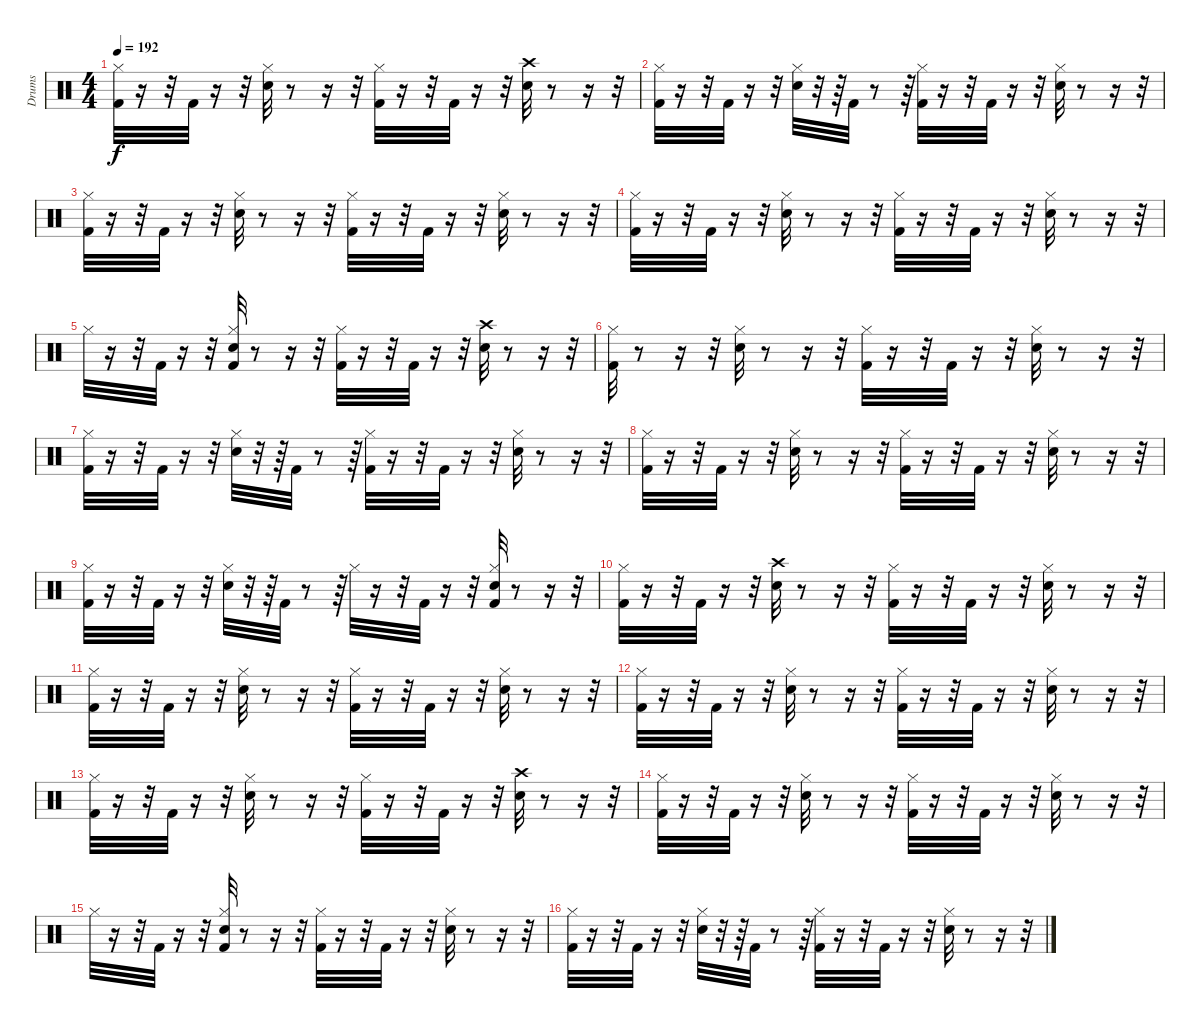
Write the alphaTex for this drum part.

\track ("Drums" "Drums") {instrument percussion}
\staff {score}
\articulation defaults
\ts (4 4)
\tempo 192
\clef neutral
\ks c
("Kick (hit) 2" "Hi-Hat (closed)").32{dy f} r.16 r.32 "Kick (hit) 2".32 r.16 r.32 ("Snare (hit) 2" "Hi-Hat (closed)").32 r.8 r.16 r.32 ("Kick (hit) 2" "Hi-Hat (closed)").32 r.16 r.32 "Kick (hit) 2".32 r.16 r.32 ("Crash high (hit)" "Snare (hit) 2").32 r.8 r.16 r.32 |
("Kick (hit) 2" "Hi-Hat (closed)").32 r.16 r.32 "Kick (hit) 2".32 r.16 r.32 ("Snare (hit) 2" "Hi-Hat (closed)").32 r.32 r.64 "Kick (hit) 2".32 r.8 r.64 ("Kick (hit) 2" "Hi-Hat (closed)").32 r.16 r.32 "Kick (hit) 2".32 r.16 r.32 ("Snare (hit) 2" "Hi-Hat (closed)").32 r.8 r.16 r.32 |
("Kick (hit) 2" "Hi-Hat (closed)").32 r.16 r.32 "Kick (hit) 2".32 r.16 r.32 ("Snare (hit) 2" "Hi-Hat (closed)").32 r.8 r.16 r.32 ("Kick (hit) 2" "Hi-Hat (closed)").32 r.16 r.32 "Kick (hit) 2".32 r.16 r.32 ("Snare (hit) 2" "Hi-Hat (closed)").32 r.8 r.16 r.32 |
("Kick (hit) 2" "Hi-Hat (closed)").32 r.16 r.32 "Kick (hit) 2".32 r.16 r.32 ("Snare (hit) 2" "Hi-Hat (closed)").32 r.8 r.16 r.32 ("Kick (hit) 2" "Hi-Hat (closed)").32 r.16 r.32 "Kick (hit) 2".32 r.16 r.32 ("Snare (hit) 2" "Hi-Hat (closed)").32 r.8 r.16 r.32 |
"Hi-Hat (closed)".32 r.16 r.32 "Kick (hit) 2".32 r.16 r.32 ("Kick (hit) 2" "Snare (hit) 2" "Hi-Hat (closed)").32 r.8 r.16 r.32 ("Kick (hit) 2" "Hi-Hat (closed)").32 r.16 r.32 "Kick (hit) 2".32 r.16 r.32 ("Crash high (hit)" "Snare (hit) 2").32 r.8 r.16 r.32 |
("Kick (hit) 2" "Hi-Hat (closed)").32 r.8 r.16 r.32 ("Snare (hit) 2" "Hi-Hat (closed)").32 r.8 r.16 r.32 ("Kick (hit) 2" "Hi-Hat (closed)").32 r.16 r.32 "Kick (hit) 2".32 r.16 r.32 ("Hi-Hat (closed)" "Snare (hit) 2").32 r.8 r.16 r.32 |
("Kick (hit) 2" "Hi-Hat (closed)").32 r.16 r.32 "Kick (hit) 2".32 r.16 r.32 ("Snare (hit) 2" "Hi-Hat (closed)").32 r.32 r.64 "Kick (hit) 2".32 r.8 r.64 ("Kick (hit) 2" "Hi-Hat (closed)").32 r.16 r.32 "Kick (hit) 2".32 r.16 r.32 ("Snare (hit) 2" "Hi-Hat (closed)").32 r.8 r.16 r.32 |
("Kick (hit) 2" "Hi-Hat (closed)").32 r.16 r.32 "Kick (hit) 2".32 r.16 r.32 ("Snare (hit) 2" "Hi-Hat (closed)").32 r.8 r.16 r.32 ("Kick (hit) 2" "Hi-Hat (closed)").32 r.16 r.32 "Kick (hit) 2".32 r.16 r.32 ("Hi-Hat (closed)" "Snare (hit) 2").32 r.8 r.16 r.32 |
("Kick (hit) 2" "Hi-Hat (closed)").32 r.16 r.32 "Kick (hit) 2".32 r.16 r.32 ("Snare (hit) 2" "Hi-Hat (closed)").32 r.32 r.64 "Kick (hit) 2".32 r.8 r.64 "Hi-Hat (closed)".32 r.16 r.32 "Kick (hit) 2".32 r.16 r.32 ("Kick (hit) 2" "Snare (hit) 2" "Hi-Hat (closed)").32 r.8 r.16 r.32 |
("Kick (hit) 2" "Hi-Hat (closed)").32 r.16 r.32 "Kick (hit) 2".32 r.16 r.32 ("Crash high (hit)" "Snare (hit) 2").32 r.8 r.16 r.32 ("Kick (hit) 2" "Hi-Hat (closed)").32 r.16 r.32 "Kick (hit) 2".32 r.16 r.32 ("Snare (hit) 2" "Hi-Hat (closed)").32 r.8 r.16 r.32 |
("Kick (hit) 2" "Hi-Hat (closed)").32 r.16 r.32 "Kick (hit) 2".32 r.16 r.32 ("Snare (hit) 2" "Hi-Hat (closed)").32 r.8 r.16 r.32 ("Kick (hit) 2" "Hi-Hat (closed)").32 r.16 r.32 "Kick (hit) 2".32 r.16 r.32 ("Snare (hit) 2" "Hi-Hat (closed)").32 r.8 r.16 r.32 |
("Kick (hit) 2" "Hi-Hat (closed)").32 r.16 r.32 "Kick (hit) 2".32 r.16 r.32 ("Snare (hit) 2" "Hi-Hat (closed)").32 r.8 r.16 r.32 ("Kick (hit) 2" "Hi-Hat (closed)").32 r.16 r.32 "Kick (hit) 2".32 r.16 r.32 ("Snare (hit) 2" "Hi-Hat (closed)").32 r.8 r.16 r.32 |
("Kick (hit) 2" "Hi-Hat (closed)").32 r.16 r.32 "Kick (hit) 2".32 r.16 r.32 ("Snare (hit) 2" "Hi-Hat (closed)").32 r.8 r.16 r.32 ("Kick (hit) 2" "Hi-Hat (closed)").32 r.16 r.32 "Kick (hit) 2".32 r.16 r.32 ("Crash high (hit)" "Snare (hit) 2").32 r.8 r.16 r.32 |
("Kick (hit) 2" "Hi-Hat (closed)").32 r.16 r.32 "Kick (hit) 2".32 r.16 r.32 ("Snare (hit) 2" "Hi-Hat (closed)").32 r.8 r.16 r.32 ("Kick (hit) 2" "Hi-Hat (closed)").32 r.16 r.32 "Kick (hit) 2".32 r.16 r.32 ("Snare (hit) 2" "Hi-Hat (closed)").32 r.8 r.16 r.32 |
"Hi-Hat (closed)".32 r.16 r.32 "Kick (hit) 2".32 r.16 r.32 ("Kick (hit) 2" "Snare (hit) 2" "Hi-Hat (closed)").32 r.8 r.16 r.32 ("Kick (hit) 2" "Hi-Hat (closed)").32 r.16 r.32 "Kick (hit) 2".32 r.16 r.32 ("Hi-Hat (closed)" "Snare (hit) 2").32 r.8 r.16 r.32 |
("Kick (hit) 2" "Hi-Hat (closed)").32 r.16 r.32 "Kick (hit) 2".32 r.16 r.32 ("Snare (hit) 2" "Hi-Hat (closed)").32 r.32 r.64 "Kick (hit) 2".32 r.8 r.64 ("Kick (hit) 2" "Hi-Hat (closed)").32 r.16 r.32 "Kick (hit) 2".32 r.16 r.32 ("Snare (hit) 2" "Hi-Hat (closed)").32 r.8 r.16 r.32
